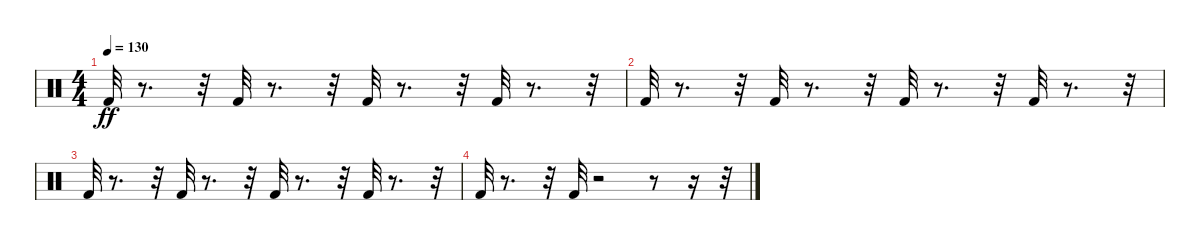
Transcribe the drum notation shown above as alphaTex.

\track "" {instrument percussion}
\staff {score}
\articulation defaults
\ts (4 4)
\tempo 130
\clef neutral
\ks c "Kick (hit) 2".32{dy ff}
r.8{d} r.32 "Kick (hit) 2".32 r.8{d} r.32 "Kick (hit) 2".32 r.8{d} r.32 "Kick (hit) 2".32 r.8{d} r.32 |
"Kick (hit) 2".32 r.8{d} r.32 "Kick (hit) 2".32 r.8{d} r.32 "Kick (hit) 2".32 r.8{d} r.32 "Kick (hit) 2".32 r.8{d} r.32 |
"Kick (hit) 2".32 r.8{d} r.32 "Kick (hit) 2".32 r.8{d} r.32 "Kick (hit) 2".32 r.8{d} r.32 "Kick (hit) 2".32 r.8{d} r.32 |
"Kick (hit) 2".32 r.8{d} r.32 "Kick (hit) 2".32 r.2 r.8 r.16 r.32
